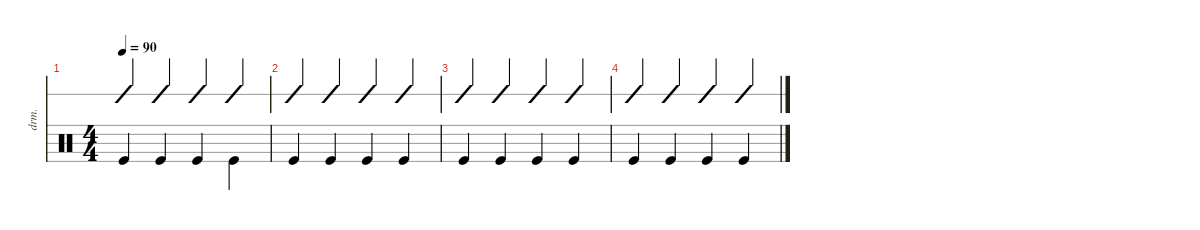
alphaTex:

\defaultSystemsLayout 4
\hideDynamics
\bracketExtendMode nobrackets
\otherSystemsTrackNameOrientation horizontal
\track ("Drumkit" "drm.") {instrument percussion}
\staff {score slash}
\articulation defaults
\ts (4 4)
\tempo 90
\clef neutral
\ks c "Kick (hit)".4{dy mf beam Up} "Kick (hit)".4{beam Up} "Kick (hit)".4{beam Up} "Kick (hit)".4{beam Down}
|
"Kick (hit)".4{beam Up} "Kick (hit)".4{beam Up} "Kick (hit)".4{beam Up} "Kick (hit)".4{beam Up} |
"Kick (hit)".4{beam Up} "Kick (hit)".4{beam Up} "Kick (hit)".4{beam Up} "Kick (hit)".4{beam Up} |
"Kick (hit)".4{beam Up} "Kick (hit)".4{beam Up} "Kick (hit)".4{beam Up} "Kick (hit)".4{beam Up}
